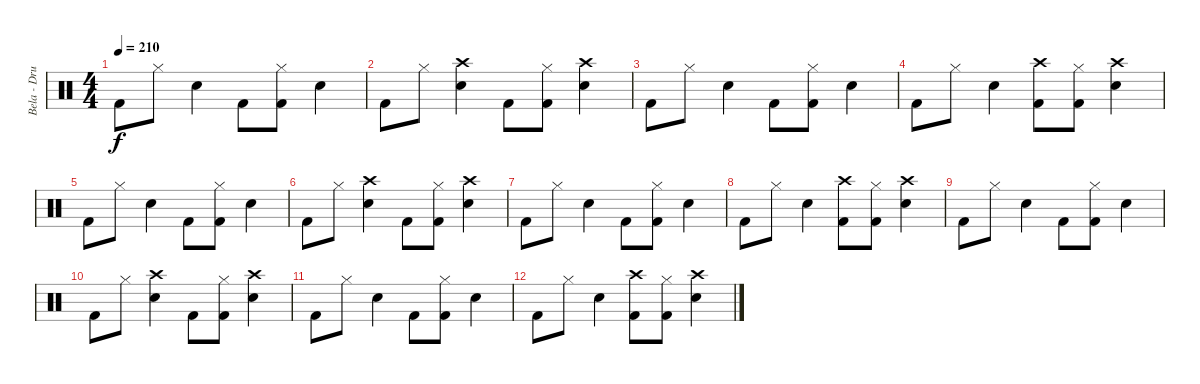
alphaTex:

\track ("Bela - Drums" "Bela - Dru") {instrument percussion}
\staff {score}
\articulation defaults
\ts (4 4)
\tempo 210
\clef neutral
\ks c "Kick (hit) 2".8{dy f} "Hi-Hat (closed)".8 "Electric Snare (hit)".4 "Kick (hit) 2".8
("Hi-Hat (closed)" "Kick (hit) 2").8 "Electric Snare (hit)".4 |
"Kick (hit) 2".8 "Hi-Hat (closed)".8 ("Crash high (hit)" "Electric Snare (hit)").4 "Kick (hit) 2".8 ("Hi-Hat (closed)" "Kick (hit) 2").8 ("Crash high (hit)" "Electric Snare (hit)").4 |
"Kick (hit) 2".8 "Hi-Hat (closed)".8 "Electric Snare (hit)".4 "Kick (hit) 2".8 ("Hi-Hat (closed)" "Kick (hit) 2").8 "Electric Snare (hit)".4 |
"Kick (hit) 2".8 "Hi-Hat (closed)".8 "Electric Snare (hit)".4 ("Crash high (hit)" "Kick (hit) 2").8 ("Hi-Hat (closed)" "Kick (hit) 2").8 ("Crash high (hit)" "Electric Snare (hit)").4 |
"Kick (hit) 2".8 "Hi-Hat (closed)".8 "Electric Snare (hit)".4 "Kick (hit) 2".8 ("Hi-Hat (closed)" "Kick (hit) 2").8 "Electric Snare (hit)".4 |
"Kick (hit) 2".8 "Hi-Hat (closed)".8 ("Crash high (hit)" "Electric Snare (hit)").4 "Kick (hit) 2".8 ("Hi-Hat (closed)" "Kick (hit) 2").8 ("Crash high (hit)" "Electric Snare (hit)").4 |
"Kick (hit) 2".8 "Hi-Hat (closed)".8 "Electric Snare (hit)".4 "Kick (hit) 2".8 ("Hi-Hat (closed)" "Kick (hit) 2").8 "Electric Snare (hit)".4 |
"Kick (hit) 2".8 "Hi-Hat (closed)".8 "Electric Snare (hit)".4 ("Crash high (hit)" "Kick (hit) 2").8 ("Hi-Hat (closed)" "Kick (hit) 2").8 ("Crash high (hit)" "Electric Snare (hit)").4 |
"Kick (hit) 2".8 "Hi-Hat (closed)".8 "Electric Snare (hit)".4 "Kick (hit) 2".8 ("Hi-Hat (closed)" "Kick (hit) 2").8 "Electric Snare (hit)".4 |
"Kick (hit) 2".8 "Hi-Hat (closed)".8 ("Crash high (hit)" "Electric Snare (hit)").4 "Kick (hit) 2".8 ("Hi-Hat (closed)" "Kick (hit) 2").8 ("Crash high (hit)" "Electric Snare (hit)").4 |
"Kick (hit) 2".8 "Hi-Hat (closed)".8 "Electric Snare (hit)".4 "Kick (hit) 2".8 ("Hi-Hat (closed)" "Kick (hit) 2").8 "Electric Snare (hit)".4 |
"Kick (hit) 2".8 "Hi-Hat (closed)".8 "Electric Snare (hit)".4 ("Crash high (hit)" "Kick (hit) 2").8 ("Hi-Hat (closed)" "Kick (hit) 2").8 ("Crash high (hit)" "Electric Snare (hit)").4
